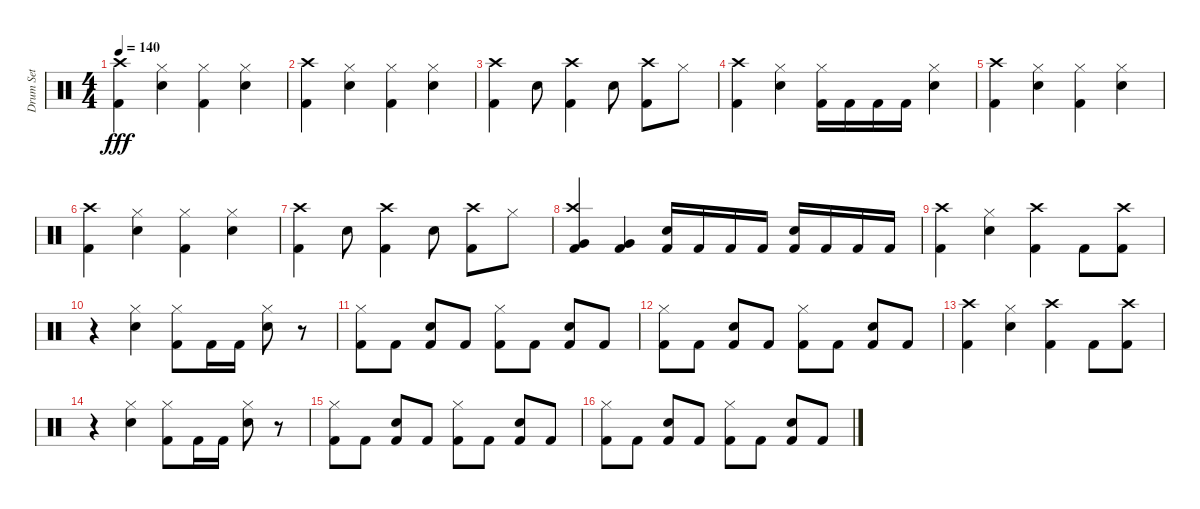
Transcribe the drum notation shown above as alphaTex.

\track ("Drum Set" "Drum Set") {instrument percussion}
\staff {score}
\articulation defaults
\ts (4 4)
\tempo 140
\clef neutral
\ks c
("Kick (hit) 2" "Crash high (hit)").4{dy fff} ("Electric Snare (hit)" "Hi-Hat (closed)").4 ("Kick (hit) 2" "Hi-Hat (closed)").4 ("Electric Snare (hit)" "Hi-Hat (closed)").4 |
("Kick (hit) 2" "Crash high (hit)").4 ("Electric Snare (hit)" "Hi-Hat (closed)").4 ("Kick (hit) 2" "Hi-Hat (closed)").4 ("Electric Snare (hit)" "Hi-Hat (closed)").4 |
("Kick (hit) 2" "Crash high (hit)").4 "Electric Snare (hit)".8 ("Kick (hit) 2" "Crash high (hit)").4 "Electric Snare (hit)".8 ("Kick (hit) 2" "Crash high (hit)").8 "Hi-Hat (closed)".8 |
("Kick (hit) 2" "Crash high (hit)").4 ("Electric Snare (hit)" "Hi-Hat (closed)").4 ("Kick (hit) 2" "Hi-Hat (closed)").16 "Kick (hit) 2".16 "Kick (hit) 2".16 "Kick (hit) 2".16 ("Electric Snare (hit)" "Hi-Hat (closed)").4 |
("Kick (hit) 2" "Crash high (hit)").4 ("Electric Snare (hit)" "Hi-Hat (closed)").4 ("Kick (hit) 2" "Hi-Hat (closed)").4 ("Electric Snare (hit)" "Hi-Hat (closed)").4 |
("Kick (hit) 2" "Crash high (hit)").4 ("Electric Snare (hit)" "Hi-Hat (closed)").4 ("Kick (hit) 2" "Hi-Hat (closed)").4 ("Electric Snare (hit)" "Hi-Hat (closed)").4 |
("Kick (hit) 2" "Crash high (hit)").4 "Electric Snare (hit)".8 ("Kick (hit) 2" "Crash high (hit)").4 "Electric Snare (hit)".8 ("Kick (hit) 2" "Crash high (hit)").8 "Hi-Hat (closed)".8 |
("Very Low Tom (hit)" "Kick (hit) 2" "Crash high (hit)").4 ("Very Low Tom (hit)" "Kick (hit) 2").4 ("Electric Snare (hit)" "Kick (hit) 2").16 "Kick (hit) 2".16 "Kick (hit) 2".16 "Kick (hit) 2".16 ("Electric Snare (hit)" "Kick (hit) 2").16 "Kick (hit) 2".16 "Kick (hit) 2".16 "Kick (hit) 2".16 |
("Kick (hit) 2" "Crash high (hit)").4 ("Electric Snare (hit)" "Hi-Hat (closed)").4 ("Crash high (hit)" "Kick (hit) 2").4 "Kick (hit) 2".8 ("Kick (hit) 2" "Crash high (hit)").8 |
r.4 ("Electric Snare (hit)" "Hi-Hat (closed)").4 ("Kick (hit) 2" "Hi-Hat (closed)").8 "Kick (hit) 2".16 "Kick (hit) 2".16 ("Electric Snare (hit)" "Hi-Hat (closed)").8 r.8 |
("Kick (hit) 2" "Hi-Hat (closed)").8 "Kick (hit) 2".8 ("Electric Snare (hit)" "Kick (hit) 2").8 "Kick (hit) 2".8 ("Hi-Hat (closed)" "Kick (hit) 2").8 "Kick (hit) 2".8 ("Electric Snare (hit)" "Kick (hit) 2").8 "Kick (hit) 2".8 |
("Kick (hit) 2" "Hi-Hat (closed)").8 "Kick (hit) 2".8 ("Electric Snare (hit)" "Kick (hit) 2").8 "Kick (hit) 2".8 ("Kick (hit) 2" "Hi-Hat (closed)").8 "Kick (hit) 2".8 ("Electric Snare (hit)" "Kick (hit) 2").8 "Kick (hit) 2".8 |
("Kick (hit) 2" "Crash high (hit)").4 ("Electric Snare (hit)" "Hi-Hat (closed)").4 ("Kick (hit) 2" "Crash high (hit)").4 "Kick (hit) 2".8 ("Kick (hit) 2" "Crash high (hit)").8 |
r.4 ("Electric Snare (hit)" "Hi-Hat (closed)").4 ("Hi-Hat (closed)" "Kick (hit) 2").8 "Kick (hit) 2".16 "Kick (hit) 2".16 ("Electric Snare (hit)" "Hi-Hat (closed)").8 r.8 |
("Hi-Hat (closed)" "Kick (hit) 2").8 "Kick (hit) 2".8 ("Electric Snare (hit)" "Kick (hit) 2").8 "Kick (hit) 2".8 ("Hi-Hat (closed)" "Kick (hit) 2").8 "Kick (hit) 2".8 ("Electric Snare (hit)" "Kick (hit) 2").8 "Kick (hit) 2".8 |
("Kick (hit) 2" "Hi-Hat (closed)").8 "Kick (hit) 2".8 ("Electric Snare (hit)" "Kick (hit) 2").8 "Kick (hit) 2".8 ("Hi-Hat (closed)" "Kick (hit) 2").8 "Kick (hit) 2".8 ("Electric Snare (hit)" "Kick (hit) 2").8 "Kick (hit) 2".8
